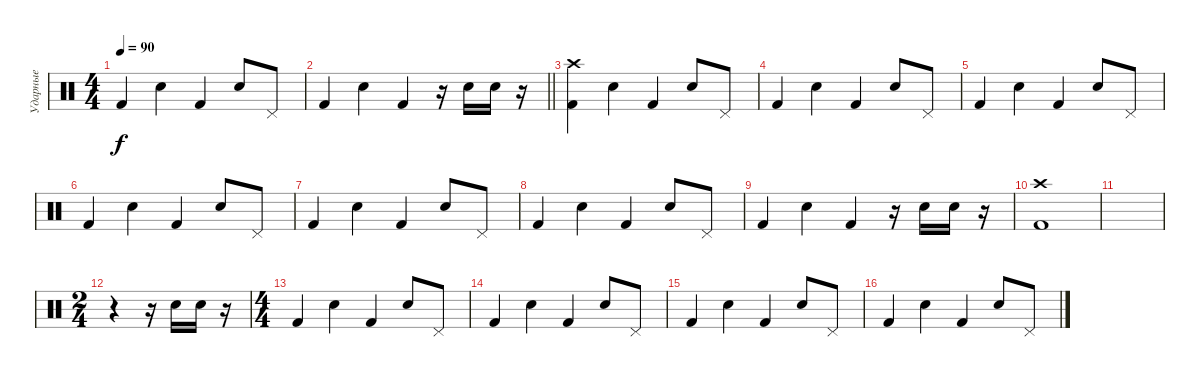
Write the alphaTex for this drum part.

\track ("Ударные" "Ударные") {instrument percussion}
\staff {score}
\articulation defaults
\ts (4 4)
\tempo 90
\clef neutral
\ks c "Kick (hit) 2".4{dy f} "Electric Snare (hit)".4 "Kick (hit) 2".4 "Electric Snare (hit)".8 "Pedal Hi-Hat (hit)".8
|
\barLineRight lightlight "Kick (hit) 2".4 "Electric Snare (hit)".4 "Kick (hit) 2".4
r.16 "Electric Snare (hit)".16 "Electric Snare (hit)".16 r.16 |
("Crash high (hit)" "Kick (hit) 2").4 "Electric Snare (hit)".4 "Kick (hit) 2".4 "Electric Snare (hit)".8 "Pedal Hi-Hat (hit)".8 |
"Kick (hit) 2".4 "Electric Snare (hit)".4 "Kick (hit) 2".4 "Electric Snare (hit)".8 "Pedal Hi-Hat (hit)".8 |
"Kick (hit) 2".4 "Electric Snare (hit)".4 "Kick (hit) 2".4 "Electric Snare (hit)".8 "Pedal Hi-Hat (hit)".8 |
"Kick (hit) 2".4 "Electric Snare (hit)".4 "Kick (hit) 2".4 "Electric Snare (hit)".8 "Pedal Hi-Hat (hit)".8 |
"Kick (hit) 2".4 "Electric Snare (hit)".4 "Kick (hit) 2".4 "Electric Snare (hit)".8 "Pedal Hi-Hat (hit)".8 |
"Kick (hit) 2".4 "Electric Snare (hit)".4 "Kick (hit) 2".4 "Electric Snare (hit)".8 "Pedal Hi-Hat (hit)".8 |
"Kick (hit) 2".4 "Electric Snare (hit)".4 "Kick (hit) 2".4 r.16 "Electric Snare (hit)".16 "Electric Snare (hit)".16 r.16 |
("Crash high (hit)" "Kick (hit) 2").1 |
|
\ts (2 4)
r.4 r.16 "Electric Snare (hit)".16 "Electric Snare (hit)".16 r.16 |
\ts (4 4)
"Kick (hit) 2".4 "Electric Snare (hit)".4 "Kick (hit) 2".4 "Electric Snare (hit)".8 "Pedal Hi-Hat (hit)".8 |
"Kick (hit) 2".4 "Electric Snare (hit)".4 "Kick (hit) 2".4 "Electric Snare (hit)".8 "Pedal Hi-Hat (hit)".8 |
"Kick (hit) 2".4 "Electric Snare (hit)".4 "Kick (hit) 2".4 "Electric Snare (hit)".8 "Pedal Hi-Hat (hit)".8 |
"Kick (hit) 2".4 "Electric Snare (hit)".4 "Kick (hit) 2".4 "Electric Snare (hit)".8 "Pedal Hi-Hat (hit)".8
